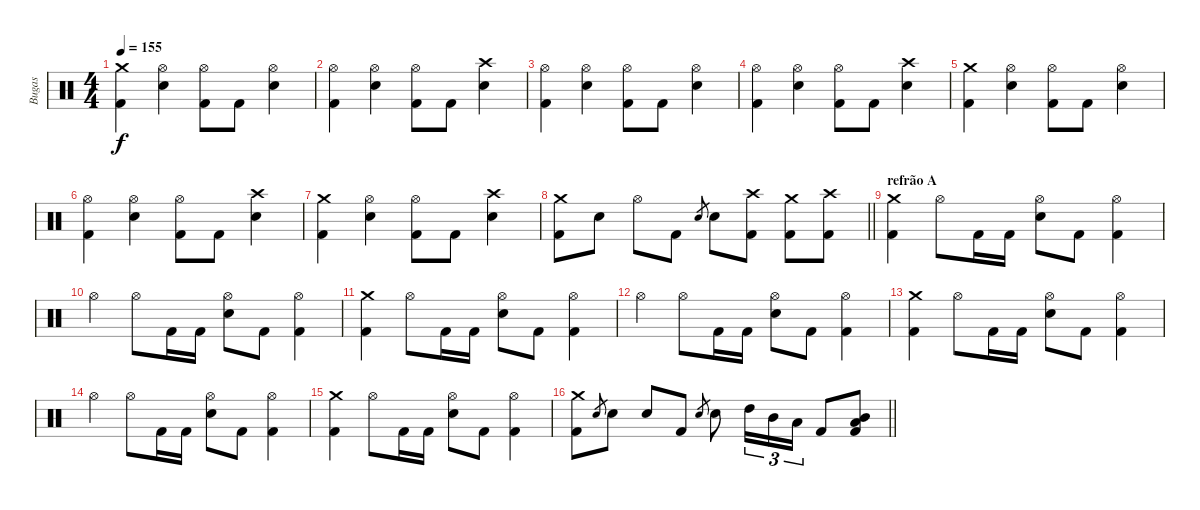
\track ("Bugas" "Bugas") {instrument percussion}
\staff {score}
\articulation defaults
\ts (4 4)
\tempo 155
\clef neutral
\ks c
("Crash medium (hit)" "Kick (hit) 2").4{dy f} ("Hi-Hat (open)" "Electric Snare (hit)").4 ("Hi-Hat (open)" "Kick (hit) 2").8 "Kick (hit) 2".8 ("Hi-Hat (open)" "Electric Snare (hit)").4 |
("Hi-Hat (open)" "Kick (hit) 2").4 ("Hi-Hat (open)" "Electric Snare (hit)").4 ("Hi-Hat (open)" "Kick (hit) 2").8 "Kick (hit) 2".8 ("Crash high (hit)" "Electric Snare (hit)").4 |
("Hi-Hat (open)" "Kick (hit) 2").4 ("Hi-Hat (open)" "Electric Snare (hit)").4 ("Hi-Hat (open)" "Kick (hit) 2").8 "Kick (hit) 2".8 ("Hi-Hat (open)" "Electric Snare (hit)").4 |
("Hi-Hat (open)" "Kick (hit) 2").4 ("Hi-Hat (open)" "Electric Snare (hit)").4 ("Hi-Hat (open)" "Kick (hit) 2").8 "Kick (hit) 2".8 ("Crash high (hit)" "Electric Snare (hit)").4 |
("Crash medium (hit)" "Kick (hit) 2").4 ("Hi-Hat (open)" "Electric Snare (hit)").4 ("Hi-Hat (open)" "Kick (hit) 2").8 "Kick (hit) 2".8 ("Hi-Hat (open)" "Electric Snare (hit)").4 |
("Hi-Hat (open)" "Kick (hit) 2").4 ("Hi-Hat (open)" "Electric Snare (hit)").4 ("Hi-Hat (open)" "Kick (hit) 2").8 "Kick (hit) 2".8 ("Crash high (hit)" "Electric Snare (hit)").4 |
("Crash medium (hit)" "Kick (hit) 2").4 ("Hi-Hat (open)" "Electric Snare (hit)").4 ("Hi-Hat (open)" "Kick (hit) 2").8 "Kick (hit) 2".8 ("Crash high (hit)" "Electric Snare (hit)").4 |
\barLineRight lightlight
("Crash medium (hit)" "Kick (hit) 2").8 "Electric Snare (hit)".8 "Hi-Hat (open)".8 "Kick (hit) 2".8 "Electric Snare (hit)".8{gr} "Electric Snare (hit)".8 ("Crash high (hit)" "Kick (hit) 2").8 ("Crash medium (hit)" "Kick (hit) 2").8 ("Crash high (hit)" "Kick (hit) 2").8 |
\section ("" "refrão A")
("Crash medium (hit)" "Kick (hit) 2").4 "Hi-Hat (open)".8 "Kick (hit) 2".16 "Kick (hit) 2".16 ("Hi-Hat (open)" "Electric Snare (hit)").8 "Kick (hit) 2".8 ("Hi-Hat (open)" "Kick (hit) 2").4 |
"Hi-Hat (open)".4 "Hi-Hat (open)".8 "Kick (hit) 2".16 "Kick (hit) 2".16 ("Hi-Hat (open)" "Electric Snare (hit)").8 "Kick (hit) 2".8 ("Hi-Hat (open)" "Kick (hit) 2").4 |
("Crash medium (hit)" "Kick (hit) 2").4 "Hi-Hat (open)".8 "Kick (hit) 2".16 "Kick (hit) 2".16 ("Hi-Hat (open)" "Electric Snare (hit)").8 "Kick (hit) 2".8 ("Hi-Hat (open)" "Kick (hit) 2").4 |
"Hi-Hat (open)".4 "Hi-Hat (open)".8 "Kick (hit) 2".16 "Kick (hit) 2".16 ("Hi-Hat (open)" "Electric Snare (hit)").8 "Kick (hit) 2".8 ("Hi-Hat (open)" "Kick (hit) 2").4 |
("Crash medium (hit)" "Kick (hit) 2").4 "Hi-Hat (open)".8 "Kick (hit) 2".16 "Kick (hit) 2".16 ("Hi-Hat (open)" "Electric Snare (hit)").8 "Kick (hit) 2".8 ("Hi-Hat (open)" "Kick (hit) 2").4 |
"Hi-Hat (open)".4 "Hi-Hat (open)".8 "Kick (hit) 2".16 "Kick (hit) 2".16 ("Hi-Hat (open)" "Electric Snare (hit)").8 "Kick (hit) 2".8 ("Hi-Hat (open)" "Kick (hit) 2").4 |
("Crash medium (hit)" "Kick (hit) 2").4 "Hi-Hat (open)".8 "Kick (hit) 2".16 "Kick (hit) 2".16 ("Hi-Hat (open)" "Electric Snare (hit)").8 "Kick (hit) 2".8 ("Hi-Hat (open)" "Kick (hit) 2").4 |
\barLineRight lightlight
("Crash medium (hit)" "Kick (hit) 2").8 "Electric Snare (hit)".8{gr} "Electric Snare (hit)".8 "Electric Snare (hit)".8 "Kick (hit) 2".8 "Electric Snare (hit)".8{gr} "Electric Snare (hit)".8 "High Tom (hit)".16{tu (3 2)} "Mid Tom (hit)".16{tu (3 2)} "Low Tom (hit)".16{tu (3 2)} "Kick (hit) 2".8 ("Mid Tom (hit)" "Low Tom (hit)" "Kick (hit) 2").8
